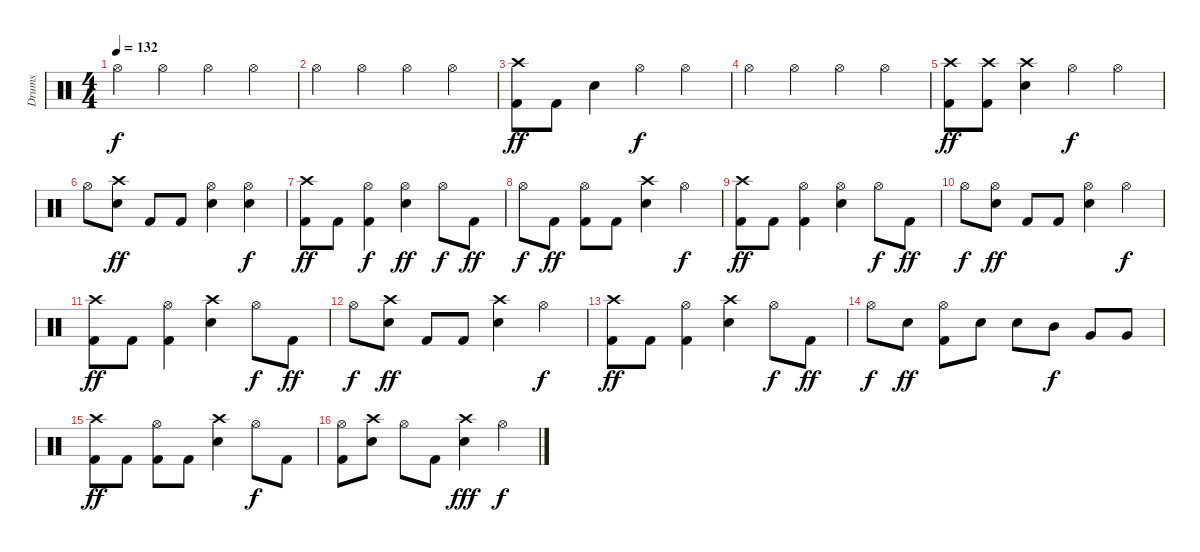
\track ("Drums" "Drums") {instrument percussion}
\staff {score}
\articulation defaults
\ts (4 4)
\tempo 132
\clef neutral
\ks c "Hi-Hat (open)".4{dy f} "Hi-Hat (open)".4 "Hi-Hat (open)".4 "Hi-Hat (open)".4
|
"Hi-Hat (open)".4 "Hi-Hat (open)".4 "Hi-Hat (open)".4 "Hi-Hat (open)".4 |
("Crash high (hit)" "Kick (hit) 2").8{dy ff} "Kick (hit) 2".8 "Snare (hit) 2".4 "Hi-Hat (open)".4{dy f} "Hi-Hat (open)".4 |
"Hi-Hat (open)".4 "Hi-Hat (open)".4 "Hi-Hat (open)".4 "Hi-Hat (open)".4 |
("Crash high (hit)" "Kick (hit) 2").8{dy ff} ("Crash high (hit)" "Kick (hit) 2").8 ("Crash high (hit)" "Snare (hit) 2").4 "Hi-Hat (open)".4{dy f} "Hi-Hat (open)".4 |
"Hi-Hat (open)".8 ("Crash high (hit)" "Snare (hit) 2").8{dy ff} "Kick (hit) 2".8 "Kick (hit) 2".8 ("Hi-Hat (open)" "Snare (hit) 2").4 ("Hi-Hat (open)" "Snare (hit) 2").4{dy f} |
("Crash high (hit)" "Kick (hit) 2").8{dy ff} "Kick (hit) 2".8 ("Hi-Hat (open)" "Kick (hit) 2").4{dy f} ("Hi-Hat (open)" "Snare (hit) 2").4{dy ff} "Hi-Hat (open)".8{dy f} "Kick (hit) 2".8{dy ff} |
"Hi-Hat (open)".8{dy f} "Kick (hit) 2".8{dy ff} ("Hi-Hat (open)" "Kick (hit) 2").8 "Kick (hit) 2".8 ("Crash high (hit)" "Snare (hit) 2").4 "Hi-Hat (open)".4{dy f} |
("Crash high (hit)" "Kick (hit) 2").8{dy ff} "Kick (hit) 2".8 ("Hi-Hat (open)" "Kick (hit) 2").4 ("Hi-Hat (open)" "Snare (hit) 2").4 "Hi-Hat (open)".8{dy f} "Kick (hit) 2".8{dy ff} |
"Hi-Hat (open)".8{dy f} ("Hi-Hat (open)" "Snare (hit) 2").8{dy ff} "Kick (hit) 2".8 "Kick (hit) 2".8 ("Hi-Hat (open)" "Snare (hit) 2").4 "Hi-Hat (open)".4{dy f} |
("Crash high (hit)" "Kick (hit) 2").8{dy ff} "Kick (hit) 2".8 ("Hi-Hat (open)" "Kick (hit) 2").4 ("Crash high (hit)" "Snare (hit) 2").4 "Hi-Hat (open)".8{dy f} "Kick (hit) 2".8{dy ff} |
"Hi-Hat (open)".8{dy f} ("Crash high (hit)" "Snare (hit) 2").8{dy ff} "Kick (hit) 2".8 "Kick (hit) 2".8 ("Crash high (hit)" "Snare (hit) 2").4 "Hi-Hat (open)".4{dy f} |
("Crash high (hit)" "Kick (hit) 2").8{dy ff} "Kick (hit) 2".8 ("Hi-Hat (open)" "Kick (hit) 2").4 ("Crash high (hit)" "Snare (hit) 2").4 "Hi-Hat (open)".8{dy f} "Kick (hit) 2".8{dy ff} |
"Hi-Hat (open)".8{dy f} "Snare (hit) 2".8{dy ff} ("Hi-Hat (open)" "Kick (hit) 2").8 "Snare (hit) 2".8 "Snare (hit) 2".8 "Mid Tom (hit)".8{dy f} "Very Low Tom (hit)".8 "Very Low Tom (hit)".8 |
("Crash high (hit)" "Kick (hit) 2").8{dy ff} "Kick (hit) 2".8 ("Hi-Hat (open)" "Kick (hit) 2").8 "Kick (hit) 2".8 ("Crash high (hit)" "Snare (hit) 2").4 "Hi-Hat (open)".8{dy f} "Kick (hit) 2".8 |
("Hi-Hat (open)" "Kick (hit) 2").8 ("Crash high (hit)" "Snare (hit) 2").8 "Hi-Hat (open)".8 "Kick (hit) 2".8 ("Crash high (hit)" "Snare (hit) 2").4{dy fff} "Hi-Hat (open)".4{dy f}
